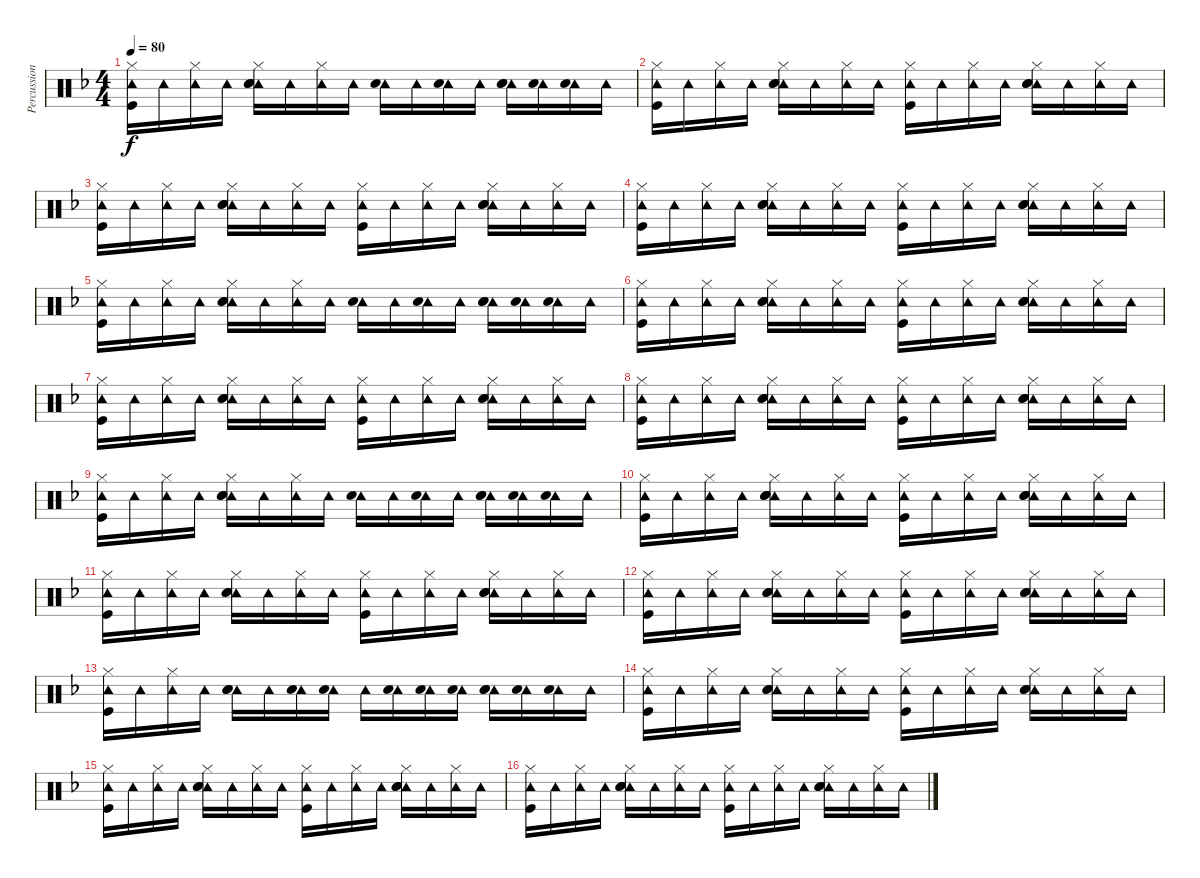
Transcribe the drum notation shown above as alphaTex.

\track ("Percussion" "Percussion") {instrument percussion}
\staff {score}
\articulation defaults
\ts (4 4)
\tempo 80
\clef neutral
\ks f
("Hi-Hat (closed)" "Tambourine (hit)" "Kick (hit)").16{dy f} "Tambourine (hit)".16 ("Hi-Hat (closed)" "Tambourine (hit)").16 "Tambourine (hit)".16 ("Hi-Hat (closed)" "Tambourine (hit)" "Snare (hit) 2" "Hand Clap (hit)").16 "Tambourine (hit)".16 ("Hi-Hat (closed)" "Tambourine (hit)").16 "Tambourine (hit)".16 ("Tambourine (hit)" "Snare (hit) 2").16 "Tambourine (hit)".16 ("Tambourine (hit)" "Snare (hit) 2").16 "Tambourine (hit)".16 ("Tambourine (hit)" "Snare (hit) 2" "Hand Clap (hit)").16 ("Tambourine (hit)" "Snare (hit) 2").16 ("Tambourine (hit)" "Snare (hit) 2").16 "Tambourine (hit)".16 |
("Hi-Hat (closed)" "Tambourine (hit)" "Kick (hit)").16 "Tambourine (hit)".16 ("Hi-Hat (closed)" "Tambourine (hit)").16 "Tambourine (hit)".16 ("Hi-Hat (closed)" "Tambourine (hit)" "Snare (hit) 2" "Hand Clap (hit)").16 "Tambourine (hit)".16 ("Hi-Hat (closed)" "Tambourine (hit)").16 "Tambourine (hit)".16 ("Hi-Hat (closed)" "Tambourine (hit)" "Kick (hit)").16 "Tambourine (hit)".16 ("Hi-Hat (closed)" "Tambourine (hit)").16 "Tambourine (hit)".16 ("Hi-Hat (closed)" "Tambourine (hit)" "Snare (hit) 2" "Hand Clap (hit)").16 "Tambourine (hit)".16 ("Hi-Hat (closed)" "Tambourine (hit)").16 "Tambourine (hit)".16 |
("Hi-Hat (closed)" "Tambourine (hit)" "Kick (hit)").16 "Tambourine (hit)".16 ("Hi-Hat (closed)" "Tambourine (hit)").16 "Tambourine (hit)".16 ("Hi-Hat (closed)" "Tambourine (hit)" "Snare (hit) 2" "Hand Clap (hit)").16 "Tambourine (hit)".16 ("Hi-Hat (closed)" "Tambourine (hit)").16 "Tambourine (hit)".16 ("Hi-Hat (closed)" "Tambourine (hit)" "Kick (hit)").16 "Tambourine (hit)".16 ("Hi-Hat (closed)" "Tambourine (hit)").16 "Tambourine (hit)".16 ("Hi-Hat (closed)" "Tambourine (hit)" "Snare (hit) 2" "Hand Clap (hit)").16 "Tambourine (hit)".16 ("Hi-Hat (closed)" "Tambourine (hit)").16 "Tambourine (hit)".16 |
("Hi-Hat (closed)" "Tambourine (hit)" "Kick (hit)").16 "Tambourine (hit)".16 ("Hi-Hat (closed)" "Tambourine (hit)").16 "Tambourine (hit)".16 ("Hi-Hat (closed)" "Tambourine (hit)" "Snare (hit) 2" "Hand Clap (hit)").16 "Tambourine (hit)".16 ("Hi-Hat (closed)" "Tambourine (hit)").16 "Tambourine (hit)".16 ("Hi-Hat (closed)" "Tambourine (hit)" "Kick (hit)").16 "Tambourine (hit)".16 ("Hi-Hat (closed)" "Tambourine (hit)").16 "Tambourine (hit)".16 ("Hi-Hat (closed)" "Tambourine (hit)" "Snare (hit) 2" "Hand Clap (hit)").16 "Tambourine (hit)".16 ("Hi-Hat (closed)" "Tambourine (hit)").16 "Tambourine (hit)".16 |
("Hi-Hat (closed)" "Tambourine (hit)" "Kick (hit)").16 "Tambourine (hit)".16 ("Hi-Hat (closed)" "Tambourine (hit)").16 "Tambourine (hit)".16 ("Hi-Hat (closed)" "Tambourine (hit)" "Snare (hit) 2" "Hand Clap (hit)").16 "Tambourine (hit)".16 ("Hi-Hat (closed)" "Tambourine (hit)").16 "Tambourine (hit)".16 ("Tambourine (hit)" "Snare (hit) 2").16 "Tambourine (hit)".16 ("Tambourine (hit)" "Snare (hit) 2").16 "Tambourine (hit)".16 ("Tambourine (hit)" "Snare (hit) 2" "Hand Clap (hit)").16 ("Tambourine (hit)" "Snare (hit) 2").16 ("Tambourine (hit)" "Snare (hit) 2").16 "Tambourine (hit)".16 |
("Hi-Hat (closed)" "Tambourine (hit)" "Kick (hit)").16 "Tambourine (hit)".16 ("Hi-Hat (closed)" "Tambourine (hit)").16 "Tambourine (hit)".16 ("Hi-Hat (closed)" "Tambourine (hit)" "Snare (hit) 2" "Hand Clap (hit)").16 "Tambourine (hit)".16 ("Hi-Hat (closed)" "Tambourine (hit)").16 "Tambourine (hit)".16 ("Hi-Hat (closed)" "Tambourine (hit)" "Kick (hit)").16 "Tambourine (hit)".16 ("Hi-Hat (closed)" "Tambourine (hit)").16 "Tambourine (hit)".16 ("Hi-Hat (closed)" "Tambourine (hit)" "Snare (hit) 2" "Hand Clap (hit)").16 "Tambourine (hit)".16 ("Hi-Hat (closed)" "Tambourine (hit)").16 "Tambourine (hit)".16 |
("Hi-Hat (closed)" "Tambourine (hit)" "Kick (hit)").16 "Tambourine (hit)".16 ("Hi-Hat (closed)" "Tambourine (hit)").16 "Tambourine (hit)".16 ("Hi-Hat (closed)" "Tambourine (hit)" "Snare (hit) 2" "Hand Clap (hit)").16 "Tambourine (hit)".16 ("Hi-Hat (closed)" "Tambourine (hit)").16 "Tambourine (hit)".16 ("Hi-Hat (closed)" "Tambourine (hit)" "Kick (hit)").16 "Tambourine (hit)".16 ("Hi-Hat (closed)" "Tambourine (hit)").16 "Tambourine (hit)".16 ("Hi-Hat (closed)" "Tambourine (hit)" "Snare (hit) 2" "Hand Clap (hit)").16 "Tambourine (hit)".16 ("Hi-Hat (closed)" "Tambourine (hit)").16 "Tambourine (hit)".16 |
("Hi-Hat (closed)" "Tambourine (hit)" "Kick (hit)").16 "Tambourine (hit)".16 ("Hi-Hat (closed)" "Tambourine (hit)").16 "Tambourine (hit)".16 ("Hi-Hat (closed)" "Tambourine (hit)" "Snare (hit) 2" "Hand Clap (hit)").16 "Tambourine (hit)".16 ("Hi-Hat (closed)" "Tambourine (hit)").16 "Tambourine (hit)".16 ("Hi-Hat (closed)" "Tambourine (hit)" "Kick (hit)").16 "Tambourine (hit)".16 ("Hi-Hat (closed)" "Tambourine (hit)").16 "Tambourine (hit)".16 ("Hi-Hat (closed)" "Tambourine (hit)" "Snare (hit) 2" "Hand Clap (hit)").16 "Tambourine (hit)".16 ("Hi-Hat (closed)" "Tambourine (hit)").16 "Tambourine (hit)".16 |
("Hi-Hat (closed)" "Tambourine (hit)" "Kick (hit)").16 "Tambourine (hit)".16 ("Hi-Hat (closed)" "Tambourine (hit)").16 "Tambourine (hit)".16 ("Hi-Hat (closed)" "Tambourine (hit)" "Snare (hit) 2" "Hand Clap (hit)").16 "Tambourine (hit)".16 ("Hi-Hat (closed)" "Tambourine (hit)").16 "Tambourine (hit)".16 ("Tambourine (hit)" "Snare (hit) 2").16 "Tambourine (hit)".16 ("Tambourine (hit)" "Snare (hit) 2").16 "Tambourine (hit)".16 ("Tambourine (hit)" "Snare (hit) 2" "Hand Clap (hit)").16 ("Tambourine (hit)" "Snare (hit) 2").16 ("Tambourine (hit)" "Snare (hit) 2").16 "Tambourine (hit)".16 |
("Hi-Hat (closed)" "Tambourine (hit)" "Kick (hit)").16 "Tambourine (hit)".16 ("Hi-Hat (closed)" "Tambourine (hit)").16 "Tambourine (hit)".16 ("Hi-Hat (closed)" "Tambourine (hit)" "Snare (hit) 2" "Hand Clap (hit)").16 "Tambourine (hit)".16 ("Hi-Hat (closed)" "Tambourine (hit)").16 "Tambourine (hit)".16 ("Hi-Hat (closed)" "Tambourine (hit)" "Kick (hit)").16 "Tambourine (hit)".16 ("Hi-Hat (closed)" "Tambourine (hit)").16 "Tambourine (hit)".16 ("Hi-Hat (closed)" "Tambourine (hit)" "Snare (hit) 2" "Hand Clap (hit)").16 "Tambourine (hit)".16 ("Hi-Hat (closed)" "Tambourine (hit)").16 "Tambourine (hit)".16 |
("Hi-Hat (closed)" "Tambourine (hit)" "Kick (hit)").16 "Tambourine (hit)".16 ("Hi-Hat (closed)" "Tambourine (hit)").16 "Tambourine (hit)".16 ("Hi-Hat (closed)" "Tambourine (hit)" "Snare (hit) 2" "Hand Clap (hit)").16 "Tambourine (hit)".16 ("Hi-Hat (closed)" "Tambourine (hit)").16 "Tambourine (hit)".16 ("Hi-Hat (closed)" "Tambourine (hit)" "Kick (hit)").16 "Tambourine (hit)".16 ("Hi-Hat (closed)" "Tambourine (hit)").16 "Tambourine (hit)".16 ("Hi-Hat (closed)" "Tambourine (hit)" "Snare (hit) 2" "Hand Clap (hit)").16 "Tambourine (hit)".16 ("Hi-Hat (closed)" "Tambourine (hit)").16 "Tambourine (hit)".16 |
("Hi-Hat (closed)" "Tambourine (hit)" "Kick (hit)").16 "Tambourine (hit)".16 ("Hi-Hat (closed)" "Tambourine (hit)").16 "Tambourine (hit)".16 ("Hi-Hat (closed)" "Tambourine (hit)" "Snare (hit) 2" "Hand Clap (hit)").16 "Tambourine (hit)".16 ("Hi-Hat (closed)" "Tambourine (hit)").16 "Tambourine (hit)".16 ("Hi-Hat (closed)" "Tambourine (hit)" "Kick (hit)").16 "Tambourine (hit)".16 ("Hi-Hat (closed)" "Tambourine (hit)").16 "Tambourine (hit)".16 ("Hi-Hat (closed)" "Tambourine (hit)" "Snare (hit) 2" "Hand Clap (hit)").16 "Tambourine (hit)".16 ("Hi-Hat (closed)" "Tambourine (hit)").16 "Tambourine (hit)".16 |
("Hi-Hat (closed)" "Tambourine (hit)" "Kick (hit)").16 "Tambourine (hit)".16 ("Hi-Hat (closed)" "Tambourine (hit)").16 "Tambourine (hit)".16 ("Tambourine (hit)" "Snare (hit) 2" "Hand Clap (hit)").16 "Tambourine (hit)".16 ("Tambourine (hit)" "Snare (hit) 2").16 ("Tambourine (hit)" "Snare (hit) 2").16 "Tambourine (hit)".16 ("Tambourine (hit)" "Snare (hit) 2").16 ("Tambourine (hit)" "Snare (hit) 2").16 ("Tambourine (hit)" "Snare (hit) 2").16 ("Tambourine (hit)" "Snare (hit) 2" "Hand Clap (hit)").16 ("Tambourine (hit)" "Snare (hit) 2").16 ("Tambourine (hit)" "Snare (hit) 2").16 "Tambourine (hit)".16 |
("Hi-Hat (closed)" "Tambourine (hit)" "Kick (hit)").16 "Tambourine (hit)".16 ("Hi-Hat (closed)" "Tambourine (hit)").16 "Tambourine (hit)".16 ("Hi-Hat (closed)" "Tambourine (hit)" "Snare (hit) 2" "Hand Clap (hit)").16 "Tambourine (hit)".16 ("Hi-Hat (closed)" "Tambourine (hit)").16 "Tambourine (hit)".16 ("Hi-Hat (closed)" "Tambourine (hit)" "Kick (hit)").16 "Tambourine (hit)".16 ("Hi-Hat (closed)" "Tambourine (hit)").16 "Tambourine (hit)".16 ("Hi-Hat (closed)" "Tambourine (hit)" "Snare (hit) 2" "Hand Clap (hit)").16 "Tambourine (hit)".16 ("Hi-Hat (closed)" "Tambourine (hit)").16 "Tambourine (hit)".16 |
("Hi-Hat (closed)" "Tambourine (hit)" "Kick (hit)").16 "Tambourine (hit)".16 ("Hi-Hat (closed)" "Tambourine (hit)").16 "Tambourine (hit)".16 ("Hi-Hat (closed)" "Tambourine (hit)" "Snare (hit) 2" "Hand Clap (hit)").16 "Tambourine (hit)".16 ("Hi-Hat (closed)" "Tambourine (hit)").16 "Tambourine (hit)".16 ("Hi-Hat (closed)" "Tambourine (hit)" "Kick (hit)").16 "Tambourine (hit)".16 ("Hi-Hat (closed)" "Tambourine (hit)").16 "Tambourine (hit)".16 ("Hi-Hat (closed)" "Tambourine (hit)" "Snare (hit) 2" "Hand Clap (hit)").16 "Tambourine (hit)".16 ("Hi-Hat (closed)" "Tambourine (hit)").16 "Tambourine (hit)".16 |
("Hi-Hat (closed)" "Tambourine (hit)" "Kick (hit)").16 "Tambourine (hit)".16 ("Hi-Hat (closed)" "Tambourine (hit)").16 "Tambourine (hit)".16 ("Hi-Hat (closed)" "Tambourine (hit)" "Snare (hit) 2" "Hand Clap (hit)").16 "Tambourine (hit)".16 ("Hi-Hat (closed)" "Tambourine (hit)").16 "Tambourine (hit)".16 ("Hi-Hat (closed)" "Tambourine (hit)" "Kick (hit)").16 "Tambourine (hit)".16 ("Hi-Hat (closed)" "Tambourine (hit)").16 "Tambourine (hit)".16 ("Hi-Hat (closed)" "Tambourine (hit)" "Snare (hit) 2" "Hand Clap (hit)").16 "Tambourine (hit)".16 ("Hi-Hat (closed)" "Tambourine (hit)").16 "Tambourine (hit)".16
